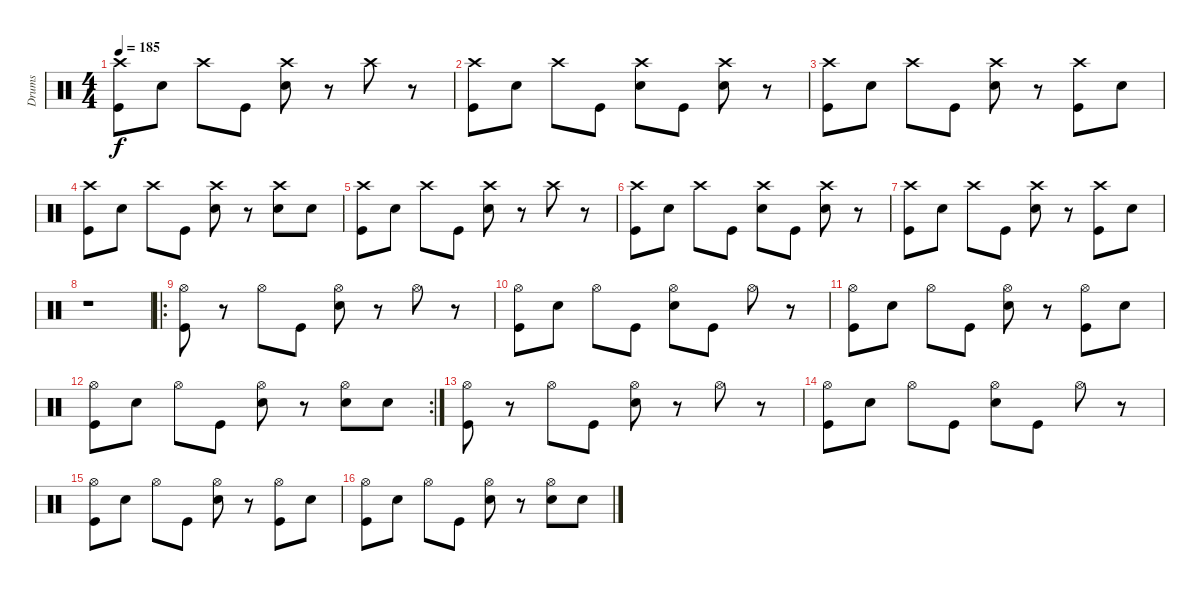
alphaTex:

\track ("Drums" "Drums") {instrument percussion}
\staff {score}
\articulation defaults
\ts (4 4)
\tempo 185
\clef neutral
\ks c
("Crash high (hit)" "Kick (hit)").8{dy f} "Snare (hit) 2".8 "Crash high (hit)".8 "Kick (hit)".8 ("Crash high (hit)" "Snare (hit) 2").8 r.8 "Crash high (hit)".8 r.8 |
("Crash high (hit)" "Kick (hit)").8 "Snare (hit) 2".8 "Crash high (hit)".8 "Kick (hit)".8 ("Crash high (hit)" "Snare (hit) 2").8 "Kick (hit)".8 ("Crash high (hit)" "Snare (hit) 2").8 r.8 |
("Crash high (hit)" "Kick (hit)").8 "Snare (hit) 2".8 "Crash high (hit)".8 "Kick (hit)".8 ("Crash high (hit)" "Snare (hit) 2").8 r.8 ("Crash high (hit)" "Kick (hit)").8 "Snare (hit) 2".8 |
("Crash high (hit)" "Kick (hit)").8 "Snare (hit) 2".8 "Crash high (hit)".8 "Kick (hit)".8 ("Crash high (hit)" "Snare (hit) 2").8 r.8 ("Crash high (hit)" "Snare (hit) 2").8 "Snare (hit) 2".8 |
("Crash high (hit)" "Kick (hit)").8 "Snare (hit) 2".8 "Crash high (hit)".8 "Kick (hit)".8 ("Crash high (hit)" "Snare (hit) 2").8 r.8 "Crash high (hit)".8 r.8 |
("Crash high (hit)" "Kick (hit)").8 "Snare (hit) 2".8 "Crash high (hit)".8 "Kick (hit)".8 ("Crash high (hit)" "Snare (hit) 2").8 "Kick (hit)".8 ("Crash high (hit)" "Snare (hit) 2").8 r.8 |
("Crash high (hit)" "Kick (hit)").8 "Snare (hit) 2".8 "Crash high (hit)".8 "Kick (hit)".8 ("Crash high (hit)" "Snare (hit) 2").8 r.8 ("Crash high (hit)" "Kick (hit)").8 "Snare (hit) 2".8 |
r.1 |
\ro
("Hi-Hat (open)" "Kick (hit)").8 r.8 "Hi-Hat (open)".8 "Kick (hit)".8 ("Hi-Hat (open)" "Snare (hit) 2").8 r.8 "Hi-Hat (open)".8 r.8 |
("Hi-Hat (open)" "Kick (hit)").8 "Snare (hit) 2".8 "Hi-Hat (open)".8 "Kick (hit)".8 ("Hi-Hat (open)" "Snare (hit) 2").8 "Kick (hit)".8 "Hi-Hat (open)".8 r.8 |
("Hi-Hat (open)" "Kick (hit)").8 "Snare (hit) 2".8 "Hi-Hat (open)".8 "Kick (hit)".8 ("Hi-Hat (open)" "Snare (hit) 2").8 r.8 ("Hi-Hat (open)" "Kick (hit)").8 "Snare (hit) 2".8 |
\rc 2
("Hi-Hat (open)" "Kick (hit)").8 "Snare (hit) 2".8 "Hi-Hat (open)".8 "Kick (hit)".8 ("Hi-Hat (open)" "Snare (hit) 2").8 r.8 ("Hi-Hat (open)" "Snare (hit) 2").8 "Snare (hit) 2".8 |
("Hi-Hat (open)" "Kick (hit)").8 r.8 "Hi-Hat (open)".8 "Kick (hit)".8 ("Hi-Hat (open)" "Snare (hit) 2").8 r.8 "Hi-Hat (open)".8 r.8 |
("Hi-Hat (open)" "Kick (hit)").8 "Snare (hit) 2".8 "Hi-Hat (open)".8 "Kick (hit)".8 ("Hi-Hat (open)" "Snare (hit) 2").8 "Kick (hit)".8 "Hi-Hat (open)".8 r.8 |
("Hi-Hat (open)" "Kick (hit)").8 "Snare (hit) 2".8 "Hi-Hat (open)".8 "Kick (hit)".8 ("Hi-Hat (open)" "Snare (hit) 2").8 r.8 ("Hi-Hat (open)" "Kick (hit)").8 "Snare (hit) 2".8 |
("Hi-Hat (open)" "Kick (hit)").8 "Snare (hit) 2".8 "Hi-Hat (open)".8 "Kick (hit)".8 ("Hi-Hat (open)" "Snare (hit) 2").8 r.8 ("Hi-Hat (open)" "Snare (hit) 2").8 "Snare (hit) 2".8
